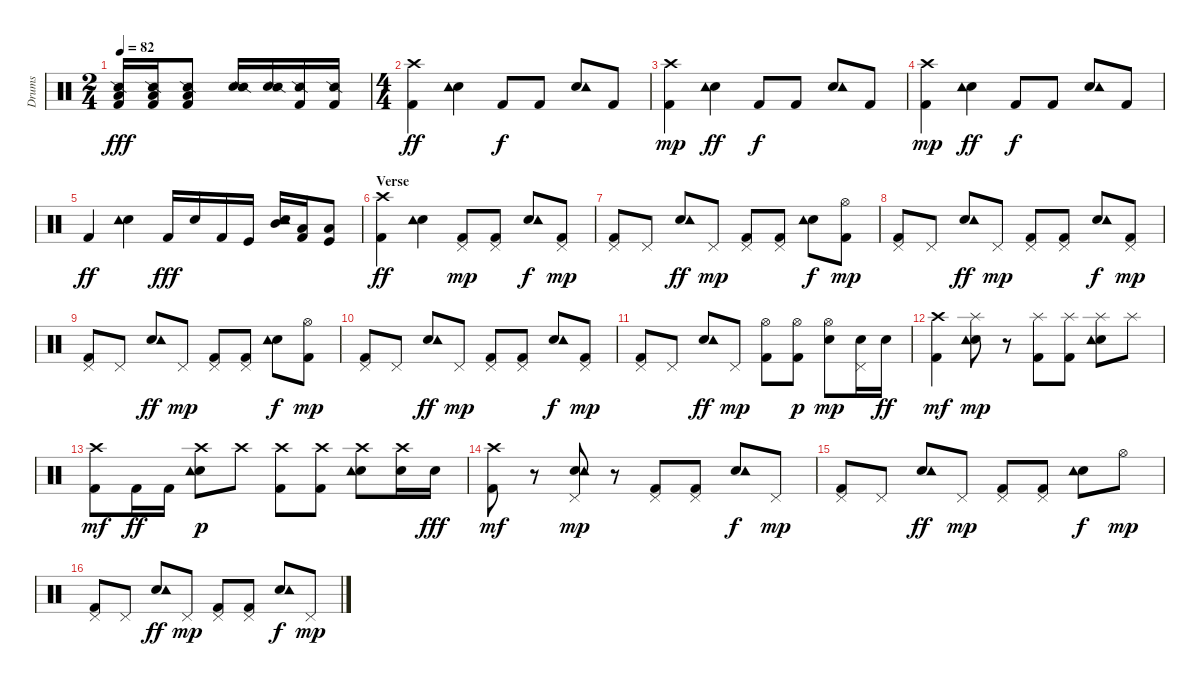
\track ("Drums" "Drums") {instrument percussion}
\staff {score}
\articulation defaults
\ts (2 4)
\tempo 82
\clef neutral
\ks c
("Snare (side stick) 2" "Low Tom (hit)" "Kick (hit) 2").16{dy fff} ("Snare (side stick) 2" "Low Tom (hit)" "Kick (hit) 2").16 ("Snare (side stick) 2" "Low Tom (hit)" "Kick (hit) 2").8 ("Electric Snare (hit)" "Snare (side stick) 2").16 ("Electric Snare (hit)" "Snare (side stick) 2").16 ("Snare (side stick) 2" "Kick (hit) 2").16 ("Snare (side stick) 2" "Kick (hit) 2").16 |
\ts (4 4)
("Kick (hit) 2" "Crash high (hit)").4{dy ff} ("Electric Snare (hit)" "Tambourine (hit)").4 "Kick (hit) 2".8{dy f} "Kick (hit) 2".8 ("Electric Snare (hit)" "Tambourine (hit)").8 "Kick (hit) 2".8 |
("Kick (hit) 2" "Crash high (hit)").4{dy mp} ("Electric Snare (hit)" "Tambourine (hit)").4{dy ff} "Kick (hit) 2".8{dy f} "Kick (hit) 2".8 ("Electric Snare (hit)" "Tambourine (hit)").8 "Kick (hit) 2".8 |
("Kick (hit) 2" "Crash high (hit)").4{dy mp} ("Electric Snare (hit)" "Tambourine (hit)").4{dy ff} "Kick (hit) 2".8{dy f} "Kick (hit) 2".8 ("Electric Snare (hit)" "Tambourine (hit)").8 "Kick (hit) 2".8 |
"Kick (hit) 2".4{dy ff} ("Electric Snare (hit)" "Tambourine (hit)").4 "Kick (hit) 2".16{dy fff} "Electric Snare (hit)".16 "Kick (hit) 2".16 "Kick (hit)".16 ("Electric Snare (hit)" "Mid Tom (hit)" "Tambourine (hit)").16 ("Low Tom (hit)" "Kick (hit) 2").16 ("Low Tom (hit)" "Kick (hit)").8 |
\section ("" "Verse")
("Kick (hit) 2" "Crash high (hit)").4{dy ff} ("Electric Snare (hit)" "Tambourine (hit)").4 ("Kick (hit) 2" "Pedal Hi-Hat (hit)").8{dy mp} ("Kick (hit) 2" "Pedal Hi-Hat (hit)").8 ("Electric Snare (hit)" "Tambourine (hit)").8{dy f} ("Kick (hit) 2" "Pedal Hi-Hat (hit)").8{dy mp} |
("Kick (hit) 2" "Pedal Hi-Hat (hit)").8 "Pedal Hi-Hat (hit)".8 ("Electric Snare (hit)" "Tambourine (hit)").8{dy ff} "Pedal Hi-Hat (hit)".8{dy mp} ("Kick (hit) 2" "Pedal Hi-Hat (hit)").8 ("Kick (hit) 2" "Pedal Hi-Hat (hit)").8 ("Electric Snare (hit)" "Tambourine (hit)").8{dy f} ("Kick (hit) 2" "Hi-Hat (open)").8{dy mp} |
("Kick (hit) 2" "Pedal Hi-Hat (hit)").8 "Pedal Hi-Hat (hit)".8 ("Electric Snare (hit)" "Tambourine (hit)").8{dy ff} "Pedal Hi-Hat (hit)".8{dy mp} ("Kick (hit) 2" "Pedal Hi-Hat (hit)").8 ("Kick (hit) 2" "Pedal Hi-Hat (hit)").8 ("Electric Snare (hit)" "Tambourine (hit)").8{dy f} ("Kick (hit) 2" "Pedal Hi-Hat (hit)").8{dy mp} |
("Kick (hit) 2" "Pedal Hi-Hat (hit)").8 "Pedal Hi-Hat (hit)".8 ("Electric Snare (hit)" "Tambourine (hit)").8{dy ff} "Pedal Hi-Hat (hit)".8{dy mp} ("Kick (hit) 2" "Pedal Hi-Hat (hit)").8 ("Kick (hit) 2" "Pedal Hi-Hat (hit)").8 ("Electric Snare (hit)" "Tambourine (hit)").8{dy f} ("Kick (hit) 2" "Hi-Hat (open)").8{dy mp} |
("Kick (hit) 2" "Pedal Hi-Hat (hit)").8 "Pedal Hi-Hat (hit)".8 ("Electric Snare (hit)" "Tambourine (hit)").8{dy ff} "Pedal Hi-Hat (hit)".8{dy mp} ("Kick (hit) 2" "Pedal Hi-Hat (hit)").8 ("Kick (hit) 2" "Pedal Hi-Hat (hit)").8 ("Electric Snare (hit)" "Tambourine (hit)").8{dy f} ("Kick (hit) 2" "Pedal Hi-Hat (hit)").8{dy mp} |
("Kick (hit) 2" "Pedal Hi-Hat (hit)").8 "Pedal Hi-Hat (hit)".8 ("Electric Snare (hit)" "Tambourine (hit)").8{dy ff} "Pedal Hi-Hat (hit)".8{dy mp} ("Kick (hit) 2" "Hi-Hat (open)").8 ("Kick (hit) 2" "Hi-Hat (open)").8{dy p} ("Electric Snare (hit)" "Hi-Hat (open)").8{dy mp} ("Electric Snare (hit)" "Pedal Hi-Hat (hit)").16 "Electric Snare (hit)".16{dy ff} |
("Kick (hit) 2" "Crash high (hit)").4{dy mf} ("Electric Snare (hit)" "Tambourine (hit)" "Splash (hit)").8{dy mp} r.8 ("Kick (hit) 2" "Splash (hit)").8 ("Kick (hit) 2" "Splash (hit)").8 ("Electric Snare (hit)" "Tambourine (hit)" "Splash (hit)").8 "Splash (hit)".8 |
("Kick (hit) 2" "Crash high (hit)").8{dy mf} "Kick (hit) 2".16{dy ff} "Kick (hit) 2".16 ("Electric Snare (hit)" "Tambourine (hit)" "Crash high (hit)").8{dy p} "Crash high (hit)".8 ("Kick (hit) 2" "Crash high (hit)").8 ("Kick (hit) 2" "Crash high (hit)").8 ("Electric Snare (hit)" "Tambourine (hit)" "Crash high (hit)").8 ("Electric Snare (hit)" "Crash high (hit)").16 "Electric Snare (hit)".16{dy fff} |
("Kick (hit) 2" "Crash high (hit)").8{dy mf} r.8 ("Electric Snare (hit)" "Tambourine (hit)" "Pedal Hi-Hat (hit)").8{dy mp} r.8 ("Kick (hit) 2" "Pedal Hi-Hat (hit)").8 ("Kick (hit) 2" "Pedal Hi-Hat (hit)").8 ("Electric Snare (hit)" "Tambourine (hit)").8{dy f} "Pedal Hi-Hat (hit)".8{dy mp} |
("Kick (hit) 2" "Pedal Hi-Hat (hit)").8 "Pedal Hi-Hat (hit)".8 ("Electric Snare (hit)" "Tambourine (hit)").8{dy ff} "Pedal Hi-Hat (hit)".8{dy mp} ("Kick (hit) 2" "Pedal Hi-Hat (hit)").8 ("Kick (hit) 2" "Pedal Hi-Hat (hit)").8 ("Electric Snare (hit)" "Tambourine (hit)").8{dy f} "Hi-Hat (open)".8{dy mp} |
("Kick (hit) 2" "Pedal Hi-Hat (hit)").8 "Pedal Hi-Hat (hit)".8 ("Electric Snare (hit)" "Tambourine (hit)").8{dy ff} "Pedal Hi-Hat (hit)".8{dy mp} ("Kick (hit) 2" "Pedal Hi-Hat (hit)").8 ("Kick (hit) 2" "Pedal Hi-Hat (hit)").8 ("Electric Snare (hit)" "Tambourine (hit)").8{dy f} "Pedal Hi-Hat (hit)".8{dy mp}
